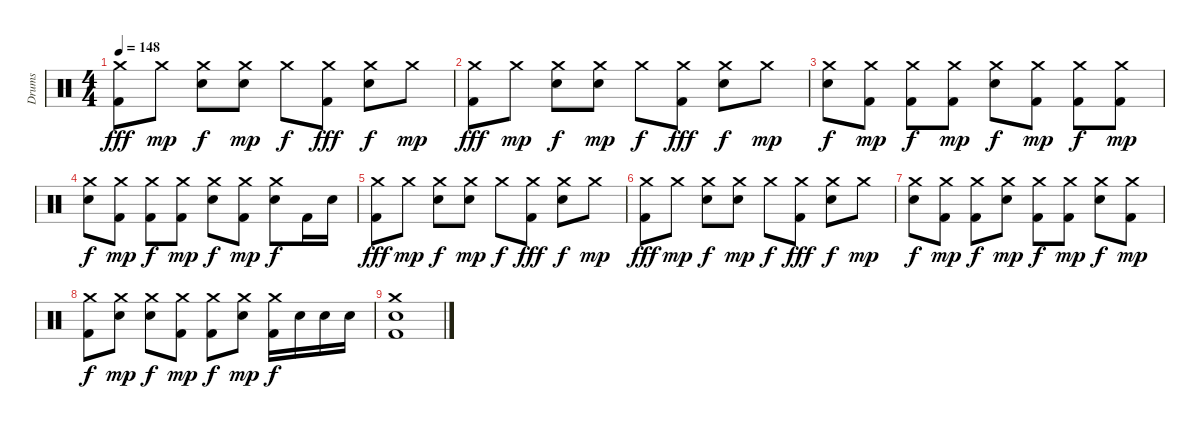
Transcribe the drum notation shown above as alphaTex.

\track ("Drums" "Drums") {instrument percussion}
\staff {score}
\articulation defaults
\ts (4 4)
\tempo 148
\clef neutral
\ks c
("Crash medium (hit)" "Kick (hit) 2").8{dy fff} "Crash medium (hit)".8{dy mp} ("Crash medium (hit)" "Snare (hit) 2").8{dy f} ("Crash medium (hit)" "Snare (hit) 2").8{dy mp} "Crash medium (hit)".8{dy f} ("Crash medium (hit)" "Kick (hit) 2").8{dy fff} ("Crash medium (hit)" "Snare (hit) 2").8{dy f} "Crash medium (hit)".8{dy mp} |
("Crash medium (hit)" "Kick (hit) 2").8{dy fff} "Crash medium (hit)".8{dy mp} ("Crash medium (hit)" "Snare (hit) 2").8{dy f} ("Crash medium (hit)" "Snare (hit) 2").8{dy mp} "Crash medium (hit)".8{dy f} ("Crash medium (hit)" "Kick (hit) 2").8{dy fff} ("Crash medium (hit)" "Snare (hit) 2").8{dy f} "Crash medium (hit)".8{dy mp} |
("Crash medium (hit)" "Snare (hit) 2").8{dy f} ("Crash medium (hit)" "Kick (hit) 2").8{dy mp} ("Crash medium (hit)" "Kick (hit) 2").8{dy f} ("Crash medium (hit)" "Kick (hit) 2").8{dy mp} ("Crash medium (hit)" "Snare (hit) 2").8{dy f} ("Crash medium (hit)" "Kick (hit) 2").8{dy mp} ("Crash medium (hit)" "Kick (hit) 2").8{dy f} ("Crash medium (hit)" "Kick (hit) 2").8{dy mp} |
("Crash medium (hit)" "Snare (hit) 2").8{dy f} ("Crash medium (hit)" "Kick (hit) 2").8{dy mp} ("Crash medium (hit)" "Kick (hit) 2").8{dy f} ("Crash medium (hit)" "Kick (hit) 2").8{dy mp} ("Crash medium (hit)" "Snare (hit) 2").8{dy f} ("Crash medium (hit)" "Kick (hit) 2").8{dy mp} ("Crash medium (hit)" "Snare (hit) 2").8{dy f} "Kick (hit) 2".16 "Snare (hit) 2".16 |
("Crash medium (hit)" "Kick (hit) 2").8{dy fff} "Crash medium (hit)".8{dy mp} ("Crash medium (hit)" "Snare (hit) 2").8{dy f} ("Crash medium (hit)" "Snare (hit) 2").8{dy mp} "Crash medium (hit)".8{dy f} ("Crash medium (hit)" "Kick (hit) 2").8{dy fff} ("Crash medium (hit)" "Snare (hit) 2").8{dy f} "Crash medium (hit)".8{dy mp} |
("Crash medium (hit)" "Kick (hit) 2").8{dy fff} "Crash medium (hit)".8{dy mp} ("Crash medium (hit)" "Snare (hit) 2").8{dy f} ("Crash medium (hit)" "Snare (hit) 2").8{dy mp} "Crash medium (hit)".8{dy f} ("Crash medium (hit)" "Kick (hit) 2").8{dy fff} ("Crash medium (hit)" "Snare (hit) 2").8{dy f} "Crash medium (hit)".8{dy mp} |
("Crash medium (hit)" "Snare (hit) 2").8{dy f} ("Crash medium (hit)" "Kick (hit) 2").8{dy mp} ("Crash medium (hit)" "Kick (hit) 2").8{dy f} ("Crash medium (hit)" "Snare (hit) 2").8{dy mp} ("Crash medium (hit)" "Kick (hit) 2").8{dy f} ("Crash medium (hit)" "Kick (hit) 2").8{dy mp} ("Crash medium (hit)" "Snare (hit) 2").8{dy f} ("Crash medium (hit)" "Kick (hit) 2").8{dy mp} |
("Crash medium (hit)" "Kick (hit) 2").8{dy f} ("Crash medium (hit)" "Snare (hit) 2").8{dy mp} ("Crash medium (hit)" "Snare (hit) 2").8{dy f} ("Crash medium (hit)" "Kick (hit) 2").8{dy mp} ("Crash medium (hit)" "Kick (hit) 2").8{dy f} ("Crash medium (hit)" "Snare (hit) 2").8{dy mp} ("Crash medium (hit)" "Kick (hit) 2").16{dy f} "Snare (hit) 2".16 "Snare (hit) 2".16 "Snare (hit) 2".16 |
("Crash medium (hit)" "Snare (hit) 2" "Kick (hit) 2").1
